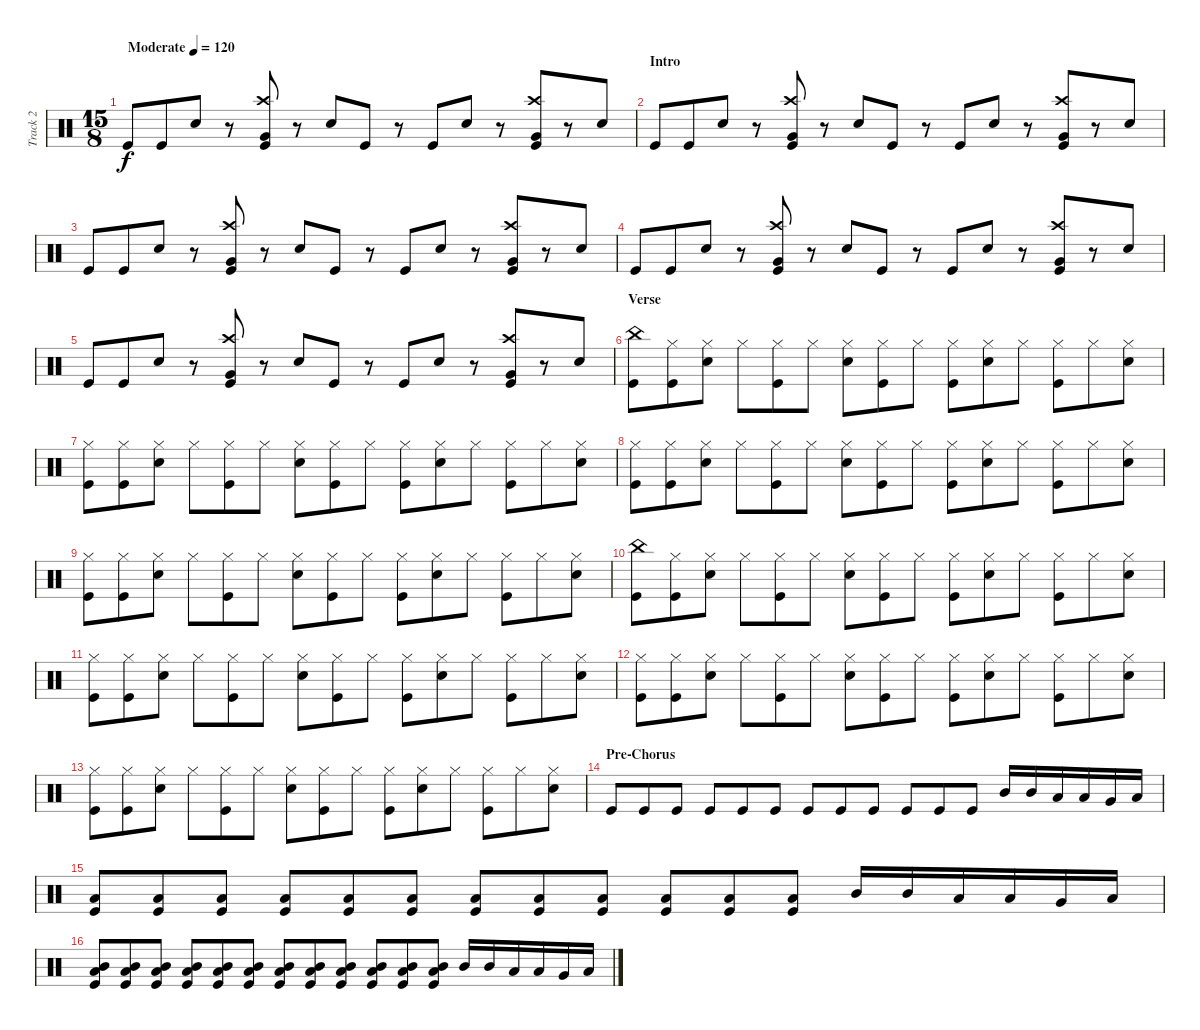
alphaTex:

\track ("Track 2" "Track 2") {instrument percussion}
\staff {score}
\articulation defaults
\ts (15 8)
\tempo (120 "Moderate")
\clef neutral
\ks c "Kick (hit)".8{dy f} "Kick (hit)".8 "Snare (hit) 2".8
r.8 ("Crash high (hit)" "Very Low Tom (hit)" "Kick (hit)").8 r.8 "Snare (hit) 2".8 "Kick (hit)".8 r.8 "Kick (hit)".8 "Snare (hit) 2".8 r.8 ("Crash high (hit)" "Very Low Tom (hit)" "Kick (hit)").8 r.8 "Snare (hit) 2".8 |
\section ("" "Intro")
"Kick (hit)".8 "Kick (hit)".8 "Snare (hit) 2".8 r.8 ("Crash high (hit)" "Very Low Tom (hit)" "Kick (hit)").8 r.8 "Snare (hit) 2".8 "Kick (hit)".8 r.8 "Kick (hit)".8 "Snare (hit) 2".8 r.8 ("Crash high (hit)" "Very Low Tom (hit)" "Kick (hit)").8 r.8 "Snare (hit) 2".8 |
"Kick (hit)".8 "Kick (hit)".8 "Snare (hit) 2".8 r.8 ("Crash high (hit)" "Very Low Tom (hit)" "Kick (hit)").8 r.8 "Snare (hit) 2".8 "Kick (hit)".8 r.8 "Kick (hit)".8 "Snare (hit) 2".8 r.8 ("Crash high (hit)" "Very Low Tom (hit)" "Kick (hit)").8 r.8 "Snare (hit) 2".8 |
"Kick (hit)".8 "Kick (hit)".8 "Snare (hit) 2".8 r.8 ("Crash high (hit)" "Very Low Tom (hit)" "Kick (hit)").8 r.8 "Snare (hit) 2".8 "Kick (hit)".8 r.8 "Kick (hit)".8 "Snare (hit) 2".8 r.8 ("Crash high (hit)" "Very Low Tom (hit)" "Kick (hit)").8 r.8 "Snare (hit) 2".8 |
"Kick (hit)".8 "Kick (hit)".8 "Snare (hit) 2".8 r.8 ("Crash high (hit)" "Very Low Tom (hit)" "Kick (hit)").8 r.8 "Snare (hit) 2".8 "Kick (hit)".8 r.8 "Kick (hit)".8 "Snare (hit) 2".8 r.8 ("Crash high (hit)" "Very Low Tom (hit)" "Kick (hit)").8 r.8 "Snare (hit) 2".8 |
\section ("" "Verse")
("China (hit)" "Kick (hit)").8 ("Hi-Hat (closed)" "Kick (hit)").8 ("Hi-Hat (closed)" "Snare (hit) 2").8 "Hi-Hat (closed)".8 ("Hi-Hat (closed)" "Kick (hit)").8 "Hi-Hat (closed)".8 ("Hi-Hat (closed)" "Snare (hit) 2").8 ("Hi-Hat (closed)" "Kick (hit)").8 "Hi-Hat (closed)".8 ("Hi-Hat (closed)" "Kick (hit)").8 ("Hi-Hat (closed)" "Snare (hit) 2").8 "Hi-Hat (closed)".8 ("Hi-Hat (closed)" "Kick (hit)").8 "Hi-Hat (closed)".8 ("Hi-Hat (closed)" "Snare (hit) 2").8 |
("Hi-Hat (closed)" "Kick (hit)").8 ("Hi-Hat (closed)" "Kick (hit)").8 ("Hi-Hat (closed)" "Snare (hit) 2").8 "Hi-Hat (closed)".8 ("Hi-Hat (closed)" "Kick (hit)").8 "Hi-Hat (closed)".8 ("Hi-Hat (closed)" "Snare (hit) 2").8 ("Hi-Hat (closed)" "Kick (hit)").8 "Hi-Hat (closed)".8 ("Hi-Hat (closed)" "Kick (hit)").8 ("Hi-Hat (closed)" "Snare (hit) 2").8 "Hi-Hat (closed)".8 ("Hi-Hat (closed)" "Kick (hit)").8 "Hi-Hat (closed)".8 ("Hi-Hat (closed)" "Snare (hit) 2").8 |
("Hi-Hat (closed)" "Kick (hit)").8 ("Hi-Hat (closed)" "Kick (hit)").8 ("Hi-Hat (closed)" "Snare (hit) 2").8 "Hi-Hat (closed)".8 ("Hi-Hat (closed)" "Kick (hit)").8 "Hi-Hat (closed)".8 ("Hi-Hat (closed)" "Snare (hit) 2").8 ("Hi-Hat (closed)" "Kick (hit)").8 "Hi-Hat (closed)".8 ("Hi-Hat (closed)" "Kick (hit)").8 ("Hi-Hat (closed)" "Snare (hit) 2").8 "Hi-Hat (closed)".8 ("Hi-Hat (closed)" "Kick (hit)").8 "Hi-Hat (closed)".8 ("Hi-Hat (closed)" "Snare (hit) 2").8 |
("Hi-Hat (closed)" "Kick (hit)").8 ("Hi-Hat (closed)" "Kick (hit)").8 ("Hi-Hat (closed)" "Snare (hit) 2").8 "Hi-Hat (closed)".8 ("Hi-Hat (closed)" "Kick (hit)").8 "Hi-Hat (closed)".8 ("Hi-Hat (closed)" "Snare (hit) 2").8 ("Hi-Hat (closed)" "Kick (hit)").8 "Hi-Hat (closed)".8 ("Hi-Hat (closed)" "Kick (hit)").8 ("Hi-Hat (closed)" "Snare (hit) 2").8 "Hi-Hat (closed)".8 ("Hi-Hat (closed)" "Kick (hit)").8 "Hi-Hat (closed)".8 ("Hi-Hat (closed)" "Snare (hit) 2").8 |
("China (hit)" "Kick (hit)").8 ("Hi-Hat (closed)" "Kick (hit)").8 ("Hi-Hat (closed)" "Snare (hit) 2").8 "Hi-Hat (closed)".8 ("Hi-Hat (closed)" "Kick (hit)").8 "Hi-Hat (closed)".8 ("Hi-Hat (closed)" "Snare (hit) 2").8 ("Hi-Hat (closed)" "Kick (hit)").8 "Hi-Hat (closed)".8 ("Hi-Hat (closed)" "Kick (hit)").8 ("Hi-Hat (closed)" "Snare (hit) 2").8 "Hi-Hat (closed)".8 ("Hi-Hat (closed)" "Kick (hit)").8 "Hi-Hat (closed)".8 ("Hi-Hat (closed)" "Snare (hit) 2").8 |
("Hi-Hat (closed)" "Kick (hit)").8 ("Hi-Hat (closed)" "Kick (hit)").8 ("Hi-Hat (closed)" "Snare (hit) 2").8 "Hi-Hat (closed)".8 ("Hi-Hat (closed)" "Kick (hit)").8 "Hi-Hat (closed)".8 ("Hi-Hat (closed)" "Snare (hit) 2").8 ("Hi-Hat (closed)" "Kick (hit)").8 "Hi-Hat (closed)".8 ("Hi-Hat (closed)" "Kick (hit)").8 ("Hi-Hat (closed)" "Snare (hit) 2").8 "Hi-Hat (closed)".8 ("Hi-Hat (closed)" "Kick (hit)").8 "Hi-Hat (closed)".8 ("Hi-Hat (closed)" "Snare (hit) 2").8 |
("Hi-Hat (closed)" "Kick (hit)").8 ("Hi-Hat (closed)" "Kick (hit)").8 ("Hi-Hat (closed)" "Snare (hit) 2").8 "Hi-Hat (closed)".8 ("Hi-Hat (closed)" "Kick (hit)").8 "Hi-Hat (closed)".8 ("Hi-Hat (closed)" "Snare (hit) 2").8 ("Hi-Hat (closed)" "Kick (hit)").8 "Hi-Hat (closed)".8 ("Hi-Hat (closed)" "Kick (hit)").8 ("Hi-Hat (closed)" "Snare (hit) 2").8 "Hi-Hat (closed)".8 ("Hi-Hat (closed)" "Kick (hit)").8 "Hi-Hat (closed)".8 ("Hi-Hat (closed)" "Snare (hit) 2").8 |
("Hi-Hat (closed)" "Kick (hit)").8 ("Hi-Hat (closed)" "Kick (hit)").8 ("Hi-Hat (closed)" "Snare (hit) 2").8 "Hi-Hat (closed)".8 ("Hi-Hat (closed)" "Kick (hit)").8 "Hi-Hat (closed)".8 ("Hi-Hat (closed)" "Snare (hit) 2").8 ("Hi-Hat (closed)" "Kick (hit)").8 "Hi-Hat (closed)".8 ("Hi-Hat (closed)" "Kick (hit)").8 ("Hi-Hat (closed)" "Snare (hit) 2").8 "Hi-Hat (closed)".8 ("Hi-Hat (closed)" "Kick (hit)").8 "Hi-Hat (closed)".8 ("Hi-Hat (closed)" "Snare (hit) 2").8 |
\section ("" "Pre-Chorus")
"Kick (hit)".8 "Kick (hit)".8 "Kick (hit)".8 "Kick (hit)".8 "Kick (hit)".8 "Kick (hit)".8 "Kick (hit)".8 "Kick (hit)".8 "Kick (hit)".8 "Kick (hit)".8 "Kick (hit)".8 "Kick (hit)".8 "Mid Tom (hit)".16 "Mid Tom (hit)".16 "Low Tom (hit)".16 "Low Tom (hit)".16 "Very Low Tom (hit)".16 "Low Floor Tom (hit)".16 |
("Low Floor Tom (hit)" "Kick (hit)").8 ("Low Floor Tom (hit)" "Kick (hit)").8 ("Low Floor Tom (hit)" "Kick (hit)").8 ("Low Floor Tom (hit)" "Kick (hit)").8 ("Low Floor Tom (hit)" "Kick (hit)").8 ("Low Floor Tom (hit)" "Kick (hit)").8 ("Low Floor Tom (hit)" "Kick (hit)").8 ("Low Floor Tom (hit)" "Kick (hit)").8 ("Low Floor Tom (hit)" "Kick (hit)").8 ("Low Floor Tom (hit)" "Kick (hit)").8 ("Low Floor Tom (hit)" "Kick (hit)").8 ("Low Floor Tom (hit)" "Kick (hit)").8 "Mid Tom (hit)".16 "Mid Tom (hit)".16 "Low Tom (hit)".16 "Low Tom (hit)".16 "Very Low Tom (hit)".16 "Low Floor Tom (hit)".16 |
("Mid Tom (hit)" "Low Floor Tom (hit)" "Kick (hit)").8 ("Mid Tom (hit)" "Low Floor Tom (hit)" "Kick (hit)").8 ("Mid Tom (hit)" "Low Floor Tom (hit)" "Kick (hit)").8 ("Mid Tom (hit)" "Low Floor Tom (hit)" "Kick (hit)").8 ("Mid Tom (hit)" "Low Floor Tom (hit)" "Kick (hit)").8 ("Mid Tom (hit)" "Low Floor Tom (hit)" "Kick (hit)").8 ("Mid Tom (hit)" "Low Floor Tom (hit)" "Kick (hit)").8 ("Mid Tom (hit)" "Low Floor Tom (hit)" "Kick (hit)").8 ("Mid Tom (hit)" "Low Floor Tom (hit)" "Kick (hit)").8 ("Mid Tom (hit)" "Low Floor Tom (hit)" "Kick (hit)").8 ("Mid Tom (hit)" "Low Floor Tom (hit)" "Kick (hit)").8 ("Mid Tom (hit)" "Low Floor Tom (hit)" "Kick (hit)").8 "Mid Tom (hit)".16 "Mid Tom (hit)".16 "Low Tom (hit)".16 "Low Tom (hit)".16 "Very Low Tom (hit)".16 "Low Floor Tom (hit)".16
